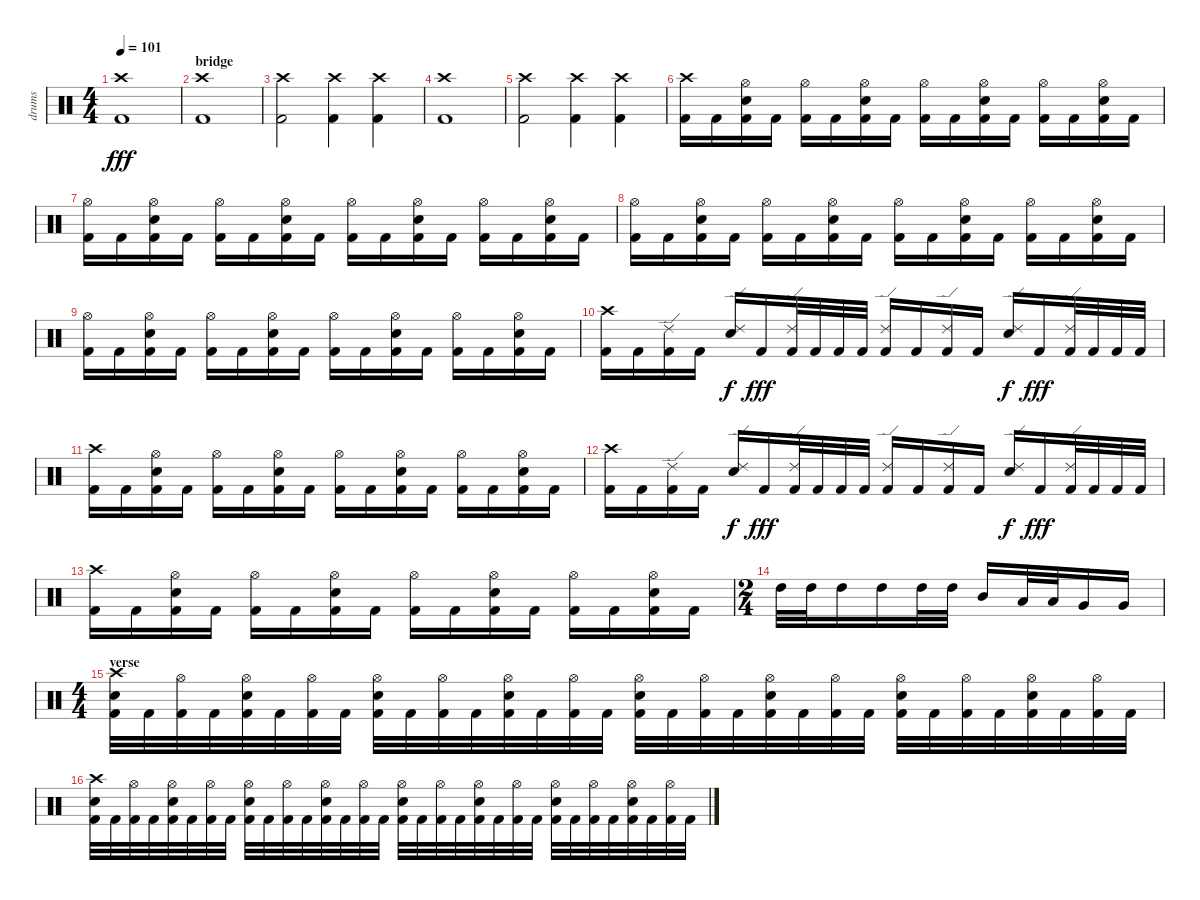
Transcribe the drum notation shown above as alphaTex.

\track ("drums" "drums") {instrument percussion}
\staff {score}
\articulation defaults
\ts (4 4)
\tempo 101
\clef neutral
\ks c
("Crash high (hit)" "Kick (hit) 2").1{dy fff} |
\section ("" "bridge")
("Crash high (hit)" "Kick (hit) 2").1 |
("Crash high (hit)" "Kick (hit) 2").2 ("Crash high (hit)" "Kick (hit) 2").4 ("Crash high (hit)" "Kick (hit) 2").4 |
("Crash high (hit)" "Kick (hit) 2").1 |
("Crash high (hit)" "Kick (hit) 2").2 ("Crash high (hit)" "Kick (hit) 2").4 ("Crash high (hit)" "Kick (hit) 2").4 |
("Crash high (hit)" "Kick (hit) 2").16 "Kick (hit) 2".16 ("Hi-Hat (open)" "Snare (hit) 2" "Kick (hit) 2").16 "Kick (hit) 2".16 ("Hi-Hat (open)" "Kick (hit) 2").16 "Kick (hit) 2".16 ("Hi-Hat (open)" "Snare (hit) 2" "Kick (hit) 2").16 "Kick (hit) 2".16 ("Hi-Hat (open)" "Kick (hit) 2").16 "Kick (hit) 2".16 ("Hi-Hat (open)" "Snare (hit) 2" "Kick (hit) 2").16 "Kick (hit) 2".16 ("Hi-Hat (open)" "Kick (hit) 2").16 "Kick (hit) 2".16 ("Hi-Hat (open)" "Snare (hit) 2" "Kick (hit) 2").16 "Kick (hit) 2".16 |
("Hi-Hat (open)" "Kick (hit) 2").16 "Kick (hit) 2".16 ("Hi-Hat (open)" "Snare (hit) 2" "Kick (hit) 2").16 "Kick (hit) 2".16 ("Hi-Hat (open)" "Kick (hit) 2").16 "Kick (hit) 2".16 ("Hi-Hat (open)" "Snare (hit) 2" "Kick (hit) 2").16 "Kick (hit) 2".16 ("Hi-Hat (open)" "Kick (hit) 2").16 "Kick (hit) 2".16 ("Hi-Hat (open)" "Snare (hit) 2" "Kick (hit) 2").16 "Kick (hit) 2".16 ("Hi-Hat (open)" "Kick (hit) 2").16 "Kick (hit) 2".16 ("Hi-Hat (open)" "Snare (hit) 2" "Kick (hit) 2").16 "Kick (hit) 2".16 |
("Hi-Hat (open)" "Kick (hit) 2").16 "Kick (hit) 2".16 ("Hi-Hat (open)" "Snare (hit) 2" "Kick (hit) 2").16 "Kick (hit) 2".16 ("Hi-Hat (open)" "Kick (hit) 2").16 "Kick (hit) 2".16 ("Hi-Hat (open)" "Snare (hit) 2" "Kick (hit) 2").16 "Kick (hit) 2".16 ("Hi-Hat (open)" "Kick (hit) 2").16 "Kick (hit) 2".16 ("Hi-Hat (open)" "Snare (hit) 2" "Kick (hit) 2").16 "Kick (hit) 2".16 ("Hi-Hat (open)" "Kick (hit) 2").16 "Kick (hit) 2".16 ("Hi-Hat (open)" "Snare (hit) 2" "Kick (hit) 2").16 "Kick (hit) 2".16 |
("Hi-Hat (open)" "Kick (hit) 2").16 "Kick (hit) 2".16 ("Hi-Hat (open)" "Snare (hit) 2" "Kick (hit) 2").16 "Kick (hit) 2".16 ("Hi-Hat (open)" "Kick (hit) 2").16 "Kick (hit) 2".16 ("Hi-Hat (open)" "Snare (hit) 2" "Kick (hit) 2").16 "Kick (hit) 2".16 ("Hi-Hat (open)" "Kick (hit) 2").16 "Kick (hit) 2".16 ("Hi-Hat (open)" "Snare (hit) 2" "Kick (hit) 2").16 "Kick (hit) 2".16 ("Hi-Hat (open)" "Kick (hit) 2").16 "Kick (hit) 2".16 ("Hi-Hat (open)" "Snare (hit) 2" "Kick (hit) 2").16 "Kick (hit) 2".16 |
("Crash high (hit)" "Kick (hit) 2").16 "Kick (hit) 2".16 ("Ride (edge) 2" "Kick (hit) 2").16 "Kick (hit) 2".16 ("Ride (edge) 2" "Snare (hit) 2").16{dy f} "Kick (hit) 2".16{dy fff} ("Ride (edge) 2" "Kick (hit) 2").32 "Kick (hit) 2".32 "Kick (hit) 2".32 "Kick (hit) 2".32 ("Ride (edge) 2" "Kick (hit) 2").16 "Kick (hit) 2".16 ("Ride (edge) 2" "Kick (hit) 2").16 "Kick (hit) 2".16 ("Ride (edge) 2" "Snare (hit) 2").16{dy f} "Kick (hit) 2".16{dy fff} ("Ride (edge) 2" "Kick (hit) 2").32 "Kick (hit) 2".32 "Kick (hit) 2".32 "Kick (hit) 2".32 |
("Crash high (hit)" "Kick (hit) 2").16 "Kick (hit) 2".16 ("Hi-Hat (open)" "Snare (hit) 2" "Kick (hit) 2").16 "Kick (hit) 2".16 ("Hi-Hat (open)" "Kick (hit) 2").16 "Kick (hit) 2".16 ("Hi-Hat (open)" "Snare (hit) 2" "Kick (hit) 2").16 "Kick (hit) 2".16 ("Hi-Hat (open)" "Kick (hit) 2").16 "Kick (hit) 2".16 ("Hi-Hat (open)" "Snare (hit) 2" "Kick (hit) 2").16 "Kick (hit) 2".16 ("Hi-Hat (open)" "Kick (hit) 2").16 "Kick (hit) 2".16 ("Hi-Hat (open)" "Snare (hit) 2" "Kick (hit) 2").16 "Kick (hit) 2".16 |
("Crash high (hit)" "Kick (hit) 2").16 "Kick (hit) 2".16 ("Ride (edge) 2" "Kick (hit) 2").16 "Kick (hit) 2".16 ("Ride (edge) 2" "Snare (hit) 2").16{dy f} "Kick (hit) 2".16{dy fff} ("Ride (edge) 2" "Kick (hit) 2").32 "Kick (hit) 2".32 "Kick (hit) 2".32 "Kick (hit) 2".32 ("Ride (edge) 2" "Kick (hit) 2").16 "Kick (hit) 2".16 ("Ride (edge) 2" "Kick (hit) 2").16 "Kick (hit) 2".16 ("Ride (edge) 2" "Snare (hit) 2").16{dy f} "Kick (hit) 2".16{dy fff} ("Ride (edge) 2" "Kick (hit) 2").32 "Kick (hit) 2".32 "Kick (hit) 2".32 "Kick (hit) 2".32 |
("Crash high (hit)" "Kick (hit) 2").16 "Kick (hit) 2".16 ("Hi-Hat (open)" "Snare (hit) 2" "Kick (hit) 2").16 "Kick (hit) 2".16 ("Hi-Hat (open)" "Kick (hit) 2").16 "Kick (hit) 2".16 ("Hi-Hat (open)" "Snare (hit) 2" "Kick (hit) 2").16 "Kick (hit) 2".16 ("Hi-Hat (open)" "Kick (hit) 2").16 "Kick (hit) 2".16 ("Hi-Hat (open)" "Snare (hit) 2" "Kick (hit) 2").16 "Kick (hit) 2".16 ("Hi-Hat (open)" "Kick (hit) 2").16 "Kick (hit) 2".16 ("Hi-Hat (open)" "Snare (hit) 2" "Kick (hit) 2").16 "Kick (hit) 2".16 |
\ts (2 4)
"High Tom (hit)".32 "High Tom (hit)".32 "High Tom (hit)".16 "High Tom (hit)".16 "High Tom (hit)".32 "High Tom (hit)".32 "Mid Tom (hit)".16 "Low Tom (hit)".32 "Low Tom (hit)".32 "Very Low Tom (hit)".16 "Very Low Tom (hit)".16 |
\ts (4 4)
\section ("" "verse")
("Crash high (hit)" "Snare (hit) 2" "Kick (hit) 2").32 "Kick (hit) 2".32 ("Hi-Hat (open)" "Kick (hit) 2").32 "Kick (hit) 2".32 ("Hi-Hat (open)" "Snare (hit) 2" "Kick (hit) 2").32 "Kick (hit) 2".32 ("Hi-Hat (open)" "Kick (hit) 2").32 "Kick (hit) 2".32 ("Hi-Hat (open)" "Snare (hit) 2" "Kick (hit) 2").32 "Kick (hit) 2".32 ("Hi-Hat (open)" "Kick (hit) 2").32 "Kick (hit) 2".32 ("Hi-Hat (open)" "Snare (hit) 2" "Kick (hit) 2").32 "Kick (hit) 2".32 ("Hi-Hat (open)" "Kick (hit) 2").32 "Kick (hit) 2".32 ("Hi-Hat (open)" "Snare (hit) 2" "Kick (hit) 2").32 "Kick (hit) 2".32 ("Hi-Hat (open)" "Kick (hit) 2").32 "Kick (hit) 2".32 ("Hi-Hat (open)" "Snare (hit) 2" "Kick (hit) 2").32 "Kick (hit) 2".32 ("Hi-Hat (open)" "Kick (hit) 2").32 "Kick (hit) 2".32 ("Hi-Hat (open)" "Snare (hit) 2" "Kick (hit) 2").32 "Kick (hit) 2".32 ("Hi-Hat (open)" "Kick (hit) 2").32 "Kick (hit) 2".32 ("Hi-Hat (open)" "Snare (hit) 2" "Kick (hit) 2").32 "Kick (hit) 2".32 ("Hi-Hat (open)" "Kick (hit) 2").32 "Kick (hit) 2".32 |
("Crash high (hit)" "Snare (hit) 2" "Kick (hit) 2").32 "Kick (hit) 2".32 ("Hi-Hat (open)" "Kick (hit) 2").32 "Kick (hit) 2".32 ("Hi-Hat (open)" "Snare (hit) 2" "Kick (hit) 2").32 "Kick (hit) 2".32 ("Hi-Hat (open)" "Kick (hit) 2").32 "Kick (hit) 2".32 ("Hi-Hat (open)" "Snare (hit) 2" "Kick (hit) 2").32 "Kick (hit) 2".32 ("Hi-Hat (open)" "Kick (hit) 2").32 "Kick (hit) 2".32 ("Hi-Hat (open)" "Snare (hit) 2" "Kick (hit) 2").32 "Kick (hit) 2".32 ("Hi-Hat (open)" "Kick (hit) 2").32 "Kick (hit) 2".32 ("Hi-Hat (open)" "Snare (hit) 2" "Kick (hit) 2").32 "Kick (hit) 2".32 ("Hi-Hat (open)" "Kick (hit) 2").32 "Kick (hit) 2".32 ("Hi-Hat (open)" "Snare (hit) 2" "Kick (hit) 2").32 "Kick (hit) 2".32 ("Hi-Hat (open)" "Kick (hit) 2").32 "Kick (hit) 2".32 ("Hi-Hat (open)" "Snare (hit) 2" "Kick (hit) 2").32 "Kick (hit) 2".32 ("Hi-Hat (open)" "Kick (hit) 2").32 "Kick (hit) 2".32 ("Hi-Hat (open)" "Snare (hit) 2" "Kick (hit) 2").32 "Kick (hit) 2".32 ("Hi-Hat (open)" "Kick (hit) 2").32 "Kick (hit) 2".32
